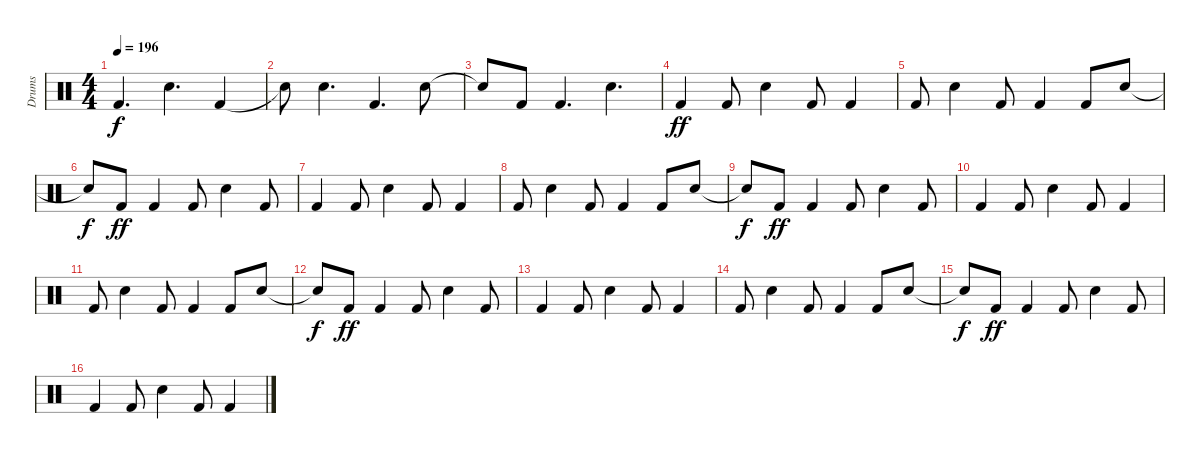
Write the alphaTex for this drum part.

\track ("Drums" "Drums") {instrument percussion}
\staff {score}
\articulation defaults
\ts (4 4)
\tempo 196
\clef neutral
\ks c "Kick (hit) 2".4{d dy f} "Electric Snare (hit)".4{d} "Kick (hit) 2".4
|
"Snare (hit)"{t}.8 "Electric Snare (hit)".4{d} "Kick (hit) 2".4{d} "Electric Snare (hit)".8 |
"Snare (hit)"{t}.8 "Kick (hit) 2".8 "Kick (hit) 2".4{d} "Electric Snare (hit)".4{d} |
"Kick (hit) 2".4{dy ff} "Kick (hit) 2".8 "Electric Snare (hit)".4 "Kick (hit) 2".8 "Kick (hit) 2".4 |
"Kick (hit) 2".8 "Electric Snare (hit)".4 "Kick (hit) 2".8 "Kick (hit) 2".4 "Kick (hit) 2".8 "Electric Snare (hit)".8 |
"Snare (hit)"{t}.8{dy f} "Kick (hit) 2".8{dy ff} "Kick (hit) 2".4 "Kick (hit) 2".8 "Electric Snare (hit)".4 "Kick (hit) 2".8 |
"Kick (hit) 2".4 "Kick (hit) 2".8 "Electric Snare (hit)".4 "Kick (hit) 2".8 "Kick (hit) 2".4 |
"Kick (hit) 2".8 "Electric Snare (hit)".4 "Kick (hit) 2".8 "Kick (hit) 2".4 "Kick (hit) 2".8 "Electric Snare (hit)".8 |
"Snare (hit)"{t}.8{dy f} "Kick (hit) 2".8{dy ff} "Kick (hit) 2".4 "Kick (hit) 2".8 "Electric Snare (hit)".4 "Kick (hit) 2".8 |
"Kick (hit) 2".4 "Kick (hit) 2".8 "Electric Snare (hit)".4 "Kick (hit) 2".8 "Kick (hit) 2".4 |
"Kick (hit) 2".8 "Electric Snare (hit)".4 "Kick (hit) 2".8 "Kick (hit) 2".4 "Kick (hit) 2".8 "Electric Snare (hit)".8 |
"Snare (hit)"{t}.8{dy f} "Kick (hit) 2".8{dy ff} "Kick (hit) 2".4 "Kick (hit) 2".8 "Electric Snare (hit)".4 "Kick (hit) 2".8 |
"Kick (hit) 2".4 "Kick (hit) 2".8 "Electric Snare (hit)".4 "Kick (hit) 2".8 "Kick (hit) 2".4 |
"Kick (hit) 2".8 "Electric Snare (hit)".4 "Kick (hit) 2".8 "Kick (hit) 2".4 "Kick (hit) 2".8 "Electric Snare (hit)".8 |
"Snare (hit)"{t}.8{dy f} "Kick (hit) 2".8{dy ff} "Kick (hit) 2".4 "Kick (hit) 2".8 "Electric Snare (hit)".4 "Kick (hit) 2".8 |
"Kick (hit) 2".4 "Kick (hit) 2".8 "Electric Snare (hit)".4 "Kick (hit) 2".8 "Kick (hit) 2".4
